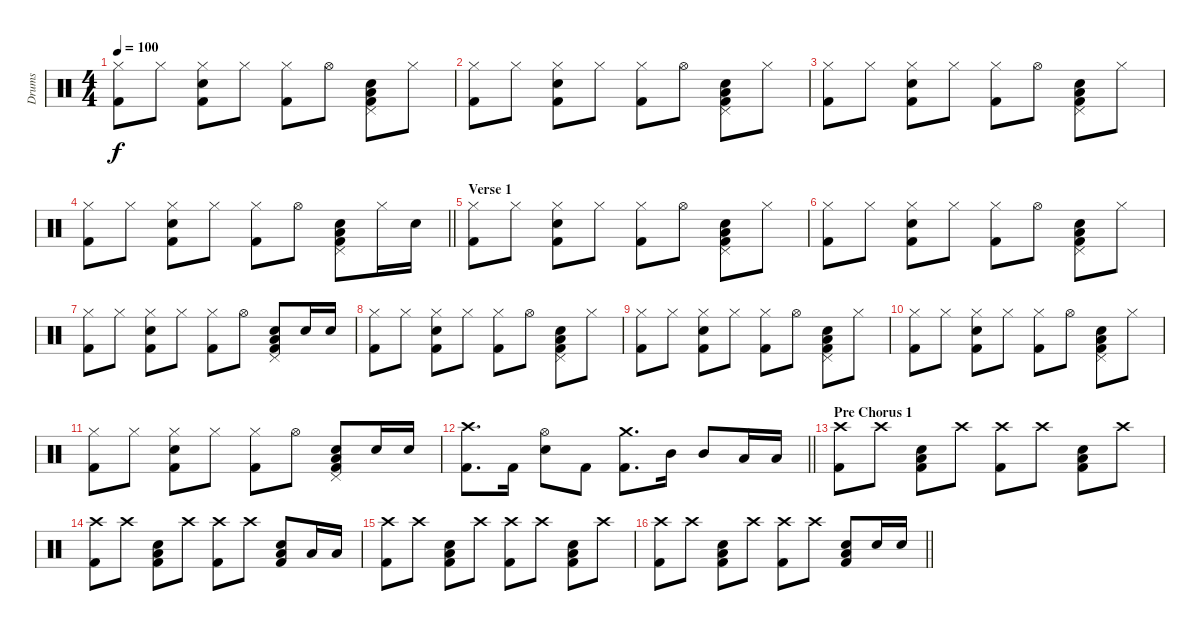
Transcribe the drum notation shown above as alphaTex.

\track ("Drums" "Drums") {instrument percussion}
\staff {score}
\articulation defaults
\ts (4 4)
\tempo 100
\clef neutral
\ks c
("Kick (hit) 2" "Hi-Hat (closed)").8{dy f} "Hi-Hat (closed)".8 ("Kick (hit) 2" "Snare (hit) 2" "Hi-Hat (closed)").8 "Hi-Hat (closed)".8 ("Hi-Hat (closed)" "Kick (hit) 2").8 "Hi-Hat (open)".8 ("Kick (hit) 2" "Pedal Hi-Hat (hit)" "Snare (hit) 2" "Low Floor Tom (hit)").8 "Hi-Hat (closed)".8 |
("Kick (hit) 2" "Hi-Hat (closed)").8 "Hi-Hat (closed)".8 ("Kick (hit) 2" "Snare (hit) 2" "Hi-Hat (closed)").8 "Hi-Hat (closed)".8 ("Hi-Hat (closed)" "Kick (hit) 2").8 "Hi-Hat (open)".8 ("Kick (hit) 2" "Pedal Hi-Hat (hit)" "Snare (hit) 2" "Low Floor Tom (hit)").8 "Hi-Hat (closed)".8 |
("Kick (hit) 2" "Hi-Hat (closed)").8 "Hi-Hat (closed)".8 ("Kick (hit) 2" "Snare (hit) 2" "Hi-Hat (closed)").8 "Hi-Hat (closed)".8 ("Hi-Hat (closed)" "Kick (hit) 2").8 "Hi-Hat (open)".8 ("Kick (hit) 2" "Pedal Hi-Hat (hit)" "Snare (hit) 2" "Low Floor Tom (hit)").8 "Hi-Hat (closed)".8 |
\barLineRight lightlight
("Kick (hit) 2" "Hi-Hat (closed)").8 "Hi-Hat (closed)".8 ("Kick (hit) 2" "Snare (hit) 2" "Hi-Hat (closed)").8 "Hi-Hat (closed)".8 ("Hi-Hat (closed)" "Kick (hit) 2").8 "Hi-Hat (open)".8 ("Kick (hit) 2" "Pedal Hi-Hat (hit)" "Snare (hit) 2" "Low Floor Tom (hit)").8 "Hi-Hat (closed)".16 "Snare (hit) 2".16 |
\section ("" "Verse 1")
("Kick (hit) 2" "Hi-Hat (closed)").8 "Hi-Hat (closed)".8 ("Kick (hit) 2" "Snare (hit) 2" "Hi-Hat (closed)").8 "Hi-Hat (closed)".8 ("Hi-Hat (closed)" "Kick (hit) 2").8 "Hi-Hat (open)".8 ("Kick (hit) 2" "Pedal Hi-Hat (hit)" "Snare (hit) 2" "Low Floor Tom (hit)").8 "Hi-Hat (closed)".8 |
("Kick (hit) 2" "Hi-Hat (closed)").8 "Hi-Hat (closed)".8 ("Kick (hit) 2" "Snare (hit) 2" "Hi-Hat (closed)").8 "Hi-Hat (closed)".8 ("Hi-Hat (closed)" "Kick (hit) 2").8 "Hi-Hat (open)".8 ("Kick (hit) 2" "Pedal Hi-Hat (hit)" "Snare (hit) 2" "Low Floor Tom (hit)").8 "Hi-Hat (closed)".8 |
("Kick (hit) 2" "Hi-Hat (closed)").8 "Hi-Hat (closed)".8 ("Kick (hit) 2" "Snare (hit) 2" "Hi-Hat (closed)").8 "Hi-Hat (closed)".8 ("Hi-Hat (closed)" "Kick (hit) 2").8 "Hi-Hat (open)".8 ("Kick (hit) 2" "Pedal Hi-Hat (hit)" "Snare (hit) 2" "Low Floor Tom (hit)").8 "Snare (hit) 2".16 "Snare (hit) 2".16 |
("Kick (hit) 2" "Hi-Hat (closed)").8 "Hi-Hat (closed)".8 ("Kick (hit) 2" "Snare (hit) 2" "Hi-Hat (closed)").8 "Hi-Hat (closed)".8 ("Hi-Hat (closed)" "Kick (hit) 2").8 "Hi-Hat (open)".8 ("Kick (hit) 2" "Pedal Hi-Hat (hit)" "Snare (hit) 2" "Low Floor Tom (hit)").8 "Hi-Hat (closed)".8 |
("Kick (hit) 2" "Hi-Hat (closed)").8 "Hi-Hat (closed)".8 ("Kick (hit) 2" "Snare (hit) 2" "Hi-Hat (closed)").8 "Hi-Hat (closed)".8 ("Hi-Hat (closed)" "Kick (hit) 2").8 "Hi-Hat (open)".8 ("Kick (hit) 2" "Pedal Hi-Hat (hit)" "Snare (hit) 2" "Low Floor Tom (hit)").8 "Hi-Hat (closed)".8 |
("Kick (hit) 2" "Hi-Hat (closed)").8 "Hi-Hat (closed)".8 ("Kick (hit) 2" "Snare (hit) 2" "Hi-Hat (closed)").8 "Hi-Hat (closed)".8 ("Hi-Hat (closed)" "Kick (hit) 2").8 "Hi-Hat (open)".8 ("Kick (hit) 2" "Pedal Hi-Hat (hit)" "Snare (hit) 2" "Low Floor Tom (hit)").8 "Hi-Hat (closed)".8 |
("Kick (hit) 2" "Hi-Hat (closed)").8 "Hi-Hat (closed)".8 ("Kick (hit) 2" "Snare (hit) 2" "Hi-Hat (closed)").8 "Hi-Hat (closed)".8 ("Hi-Hat (closed)" "Kick (hit) 2").8 "Hi-Hat (open)".8 ("Kick (hit) 2" "Pedal Hi-Hat (hit)" "Snare (hit) 2" "Low Floor Tom (hit)").8 "Snare (hit) 2".16 "Snare (hit) 2".16 |
\barLineRight lightlight
("Crash high (hit)" "Kick (hit) 2").8{d} "Kick (hit) 2".16 ("Hi-Hat (open)" "Snare (hit) 2").8 "Kick (hit) 2".8 ("Kick (hit) 2" "Crash medium (hit)").8{d} "Mid Tom (hit)".16 "Mid Tom (hit)".8 "Low Tom (hit)".16 "Low Tom (hit)".16 |
\section ("" "Pre Chorus 1")
("Kick (hit) 2" "Crash high (hit)").8 "Crash high (hit)".8 ("Kick (hit) 2" "Snare (hit) 2" "Low Floor Tom (hit)").8 "Crash high (hit)".8 ("Kick (hit) 2" "Crash high (hit)").8 "Crash high (hit)".8 ("Kick (hit) 2" "Snare (hit) 2" "Low Floor Tom (hit)").8 "Crash high (hit)".8 |
("Crash high (hit)" "Kick (hit) 2").8 "Crash high (hit)".8 ("Kick (hit) 2" "Snare (hit) 2" "Low Floor Tom (hit)").8 "Crash high (hit)".8 ("Kick (hit) 2" "Crash high (hit)").8 "Crash high (hit)".8 ("Kick (hit) 2" "Snare (hit) 2" "Low Floor Tom (hit)").8 "Low Tom (hit)".16 "Low Tom (hit)".16 |
("Kick (hit) 2" "Crash high (hit)").8 "Crash high (hit)".8 ("Kick (hit) 2" "Snare (hit) 2" "Low Floor Tom (hit)").8 "Crash high (hit)".8 ("Kick (hit) 2" "Crash high (hit)").8 "Crash high (hit)".8 ("Kick (hit) 2" "Snare (hit) 2" "Low Floor Tom (hit)").8 "Crash high (hit)".8 |
\barLineRight lightlight
("Crash high (hit)" "Kick (hit) 2").8 "Crash high (hit)".8 ("Kick (hit) 2" "Snare (hit) 2" "Low Floor Tom (hit)").8 "Crash high (hit)".8 ("Kick (hit) 2" "Crash high (hit)").8 "Crash high (hit)".8 ("Kick (hit) 2" "Snare (hit) 2" "Low Floor Tom (hit)").8 "Snare (hit) 2".16 "Snare (hit) 2".16
